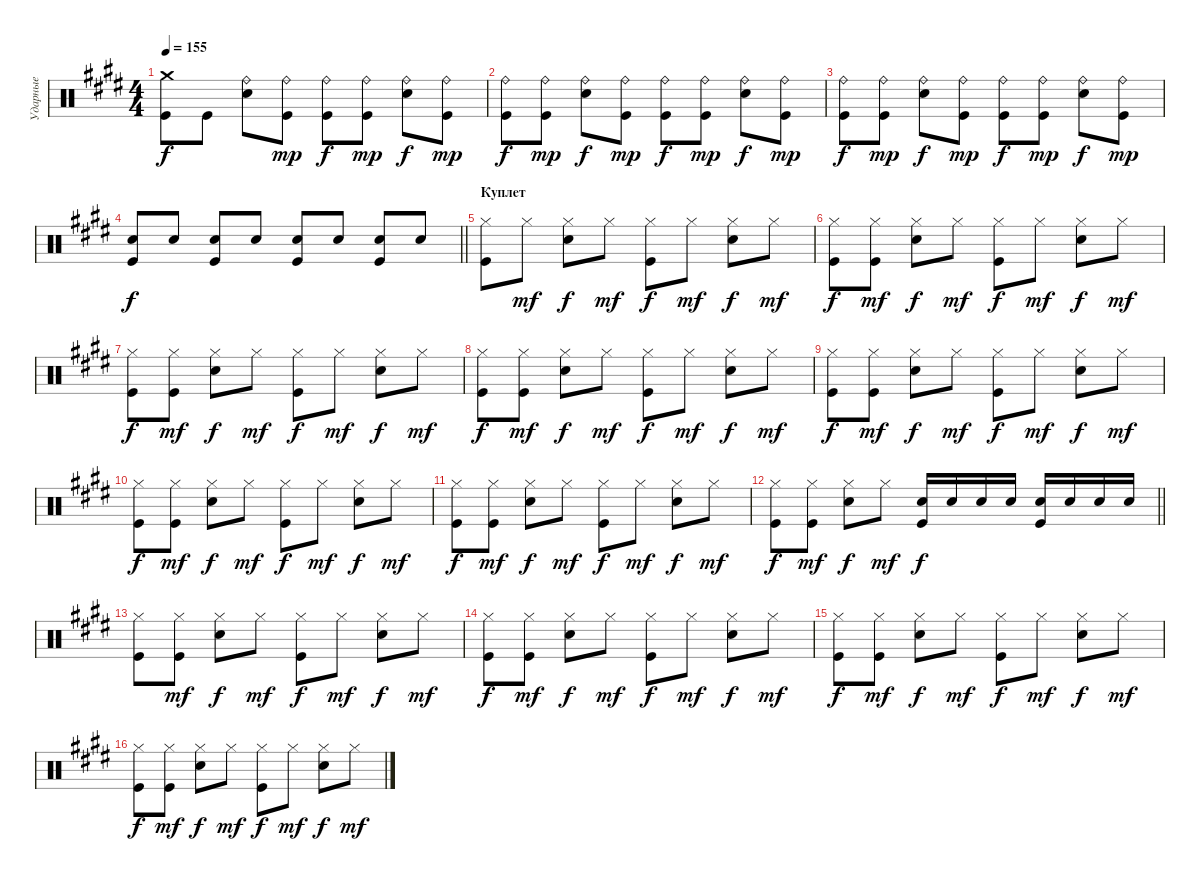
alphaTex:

\track ("Ударные" "Ударные") {instrument percussion}
\staff {score}
\articulation defaults
\ts (4 4)
\tempo 155
\clef neutral
\ks e
("Crash medium (hit)" "Kick (hit)").8{dy f} "Kick (hit)".8 ("Ride (bell)" "Electric Snare (hit)").8 ("Ride (bell)" "Kick (hit)").8{dy mp} ("Ride (bell)" "Kick (hit)").8{dy f} ("Ride (bell)" "Kick (hit)").8{dy mp} ("Ride (bell)" "Electric Snare (hit)").8{dy f} ("Ride (bell)" "Kick (hit)").8{dy mp} |
("Ride (bell)" "Kick (hit)").8{dy f} ("Ride (bell)" "Kick (hit)").8{dy mp} ("Ride (bell)" "Electric Snare (hit)").8{dy f} ("Ride (bell)" "Kick (hit)").8{dy mp} ("Ride (bell)" "Kick (hit)").8{dy f} ("Ride (bell)" "Kick (hit)").8{dy mp} ("Ride (bell)" "Electric Snare (hit)").8{dy f} ("Ride (bell)" "Kick (hit)").8{dy mp} |
("Ride (bell)" "Kick (hit)").8{dy f} ("Ride (bell)" "Kick (hit)").8{dy mp} ("Ride (bell)" "Electric Snare (hit)").8{dy f} ("Ride (bell)" "Kick (hit)").8{dy mp} ("Ride (bell)" "Kick (hit)").8{dy f} ("Ride (bell)" "Kick (hit)").8{dy mp} ("Ride (bell)" "Electric Snare (hit)").8{dy f} ("Ride (bell)" "Kick (hit)").8{dy mp} |
\barLineRight lightlight
("Electric Snare (hit)" "Kick (hit)").8{dy f} "Electric Snare (hit)".8 ("Electric Snare (hit)" "Kick (hit)").8 "Electric Snare (hit)".8 ("Electric Snare (hit)" "Kick (hit)").8 "Electric Snare (hit)".8 ("Electric Snare (hit)" "Kick (hit)").8 "Electric Snare (hit)".8 |
\section ("" "Куплет")
("Hi-Hat (closed)" "Kick (hit)").8 "Hi-Hat (closed)".8{dy mf} ("Hi-Hat (closed)" "Electric Snare (hit)").8{dy f} "Hi-Hat (closed)".8{dy mf} ("Hi-Hat (closed)" "Kick (hit)").8{dy f} "Hi-Hat (closed)".8{dy mf} ("Hi-Hat (closed)" "Electric Snare (hit)").8{dy f} "Hi-Hat (closed)".8{dy mf} |
("Hi-Hat (closed)" "Kick (hit)").8{dy f} ("Hi-Hat (closed)" "Kick (hit)").8{dy mf} ("Hi-Hat (closed)" "Electric Snare (hit)").8{dy f} "Hi-Hat (closed)".8{dy mf} ("Hi-Hat (closed)" "Kick (hit)").8{dy f} "Hi-Hat (closed)".8{dy mf} ("Hi-Hat (closed)" "Electric Snare (hit)").8{dy f} "Hi-Hat (closed)".8{dy mf} |
("Hi-Hat (closed)" "Kick (hit)").8{dy f} ("Hi-Hat (closed)" "Kick (hit)").8{dy mf} ("Hi-Hat (closed)" "Electric Snare (hit)").8{dy f} "Hi-Hat (closed)".8{dy mf} ("Hi-Hat (closed)" "Kick (hit)").8{dy f} "Hi-Hat (closed)".8{dy mf} ("Hi-Hat (closed)" "Electric Snare (hit)").8{dy f} "Hi-Hat (closed)".8{dy mf} |
("Hi-Hat (closed)" "Kick (hit)").8{dy f} ("Hi-Hat (closed)" "Kick (hit)").8{dy mf} ("Hi-Hat (closed)" "Electric Snare (hit)").8{dy f} "Hi-Hat (closed)".8{dy mf} ("Hi-Hat (closed)" "Kick (hit)").8{dy f} "Hi-Hat (closed)".8{dy mf} ("Hi-Hat (closed)" "Electric Snare (hit)").8{dy f} "Hi-Hat (closed)".8{dy mf} |
("Hi-Hat (closed)" "Kick (hit)").8{dy f} ("Hi-Hat (closed)" "Kick (hit)").8{dy mf} ("Hi-Hat (closed)" "Electric Snare (hit)").8{dy f} "Hi-Hat (closed)".8{dy mf} ("Hi-Hat (closed)" "Kick (hit)").8{dy f} "Hi-Hat (closed)".8{dy mf} ("Hi-Hat (closed)" "Electric Snare (hit)").8{dy f} "Hi-Hat (closed)".8{dy mf} |
("Hi-Hat (closed)" "Kick (hit)").8{dy f} ("Hi-Hat (closed)" "Kick (hit)").8{dy mf} ("Hi-Hat (closed)" "Electric Snare (hit)").8{dy f} "Hi-Hat (closed)".8{dy mf} ("Hi-Hat (closed)" "Kick (hit)").8{dy f} "Hi-Hat (closed)".8{dy mf} ("Hi-Hat (closed)" "Electric Snare (hit)").8{dy f} "Hi-Hat (closed)".8{dy mf} |
("Hi-Hat (closed)" "Kick (hit)").8{dy f} ("Hi-Hat (closed)" "Kick (hit)").8{dy mf} ("Hi-Hat (closed)" "Electric Snare (hit)").8{dy f} "Hi-Hat (closed)".8{dy mf} ("Hi-Hat (closed)" "Kick (hit)").8{dy f} "Hi-Hat (closed)".8{dy mf} ("Hi-Hat (closed)" "Electric Snare (hit)").8{dy f} "Hi-Hat (closed)".8{dy mf} |
\barLineRight lightlight
("Hi-Hat (closed)" "Kick (hit)").8{dy f} ("Hi-Hat (closed)" "Kick (hit)").8{dy mf} ("Hi-Hat (closed)" "Electric Snare (hit)").8{dy f} "Hi-Hat (closed)".8{dy mf} ("Electric Snare (hit)" "Kick (hit)").16{dy f} "Electric Snare (hit)".16 "Electric Snare (hit)".16 "Electric Snare (hit)".16 ("Electric Snare (hit)" "Kick (hit)").16 "Electric Snare (hit)".16 "Electric Snare (hit)".16 "Electric Snare (hit)".16 |
\section ("" " ")
("Hi-Hat (closed)" "Kick (hit)").8 ("Hi-Hat (closed)" "Kick (hit)").8{dy mf} ("Hi-Hat (closed)" "Electric Snare (hit)").8{dy f} "Hi-Hat (closed)".8{dy mf} ("Hi-Hat (closed)" "Kick (hit)").8{dy f} "Hi-Hat (closed)".8{dy mf} ("Hi-Hat (closed)" "Electric Snare (hit)").8{dy f} "Hi-Hat (closed)".8{dy mf} |
("Hi-Hat (closed)" "Kick (hit)").8{dy f} ("Hi-Hat (closed)" "Kick (hit)").8{dy mf} ("Hi-Hat (closed)" "Electric Snare (hit)").8{dy f} "Hi-Hat (closed)".8{dy mf} ("Hi-Hat (closed)" "Kick (hit)").8{dy f} "Hi-Hat (closed)".8{dy mf} ("Hi-Hat (closed)" "Electric Snare (hit)").8{dy f} "Hi-Hat (closed)".8{dy mf} |
("Hi-Hat (closed)" "Kick (hit)").8{dy f} ("Hi-Hat (closed)" "Kick (hit)").8{dy mf} ("Hi-Hat (closed)" "Electric Snare (hit)").8{dy f} "Hi-Hat (closed)".8{dy mf} ("Hi-Hat (closed)" "Kick (hit)").8{dy f} "Hi-Hat (closed)".8{dy mf} ("Hi-Hat (closed)" "Electric Snare (hit)").8{dy f} "Hi-Hat (closed)".8{dy mf} |
("Hi-Hat (closed)" "Kick (hit)").8{dy f} ("Hi-Hat (closed)" "Kick (hit)").8{dy mf} ("Hi-Hat (closed)" "Electric Snare (hit)").8{dy f} "Hi-Hat (closed)".8{dy mf} ("Hi-Hat (closed)" "Kick (hit)").8{dy f} "Hi-Hat (closed)".8{dy mf} ("Hi-Hat (closed)" "Electric Snare (hit)").8{dy f} "Hi-Hat (closed)".8{dy mf}
